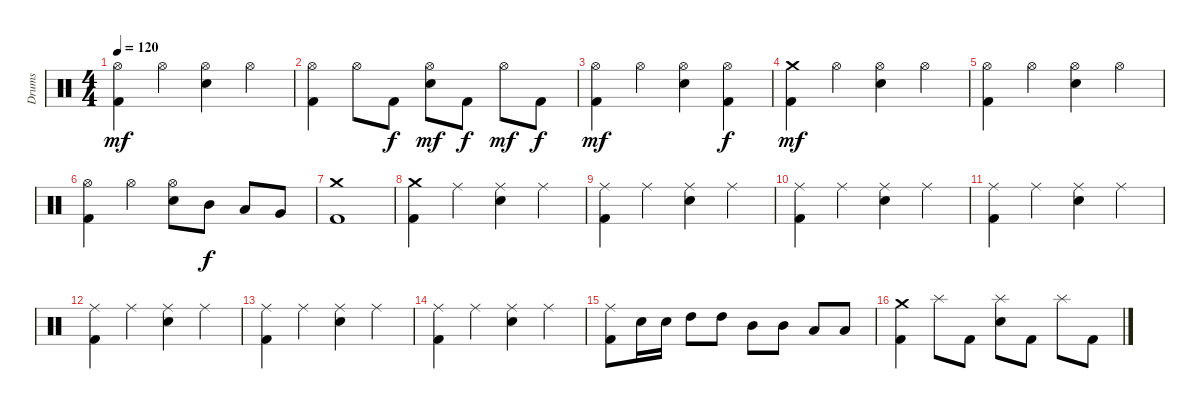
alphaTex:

\track ("Drums" "Drums") {instrument percussion}
\staff {score}
\articulation defaults
\ts (4 4)
\tempo 120
\clef neutral
\ks c
("Kick (hit) 2" "Hi-Hat (open)").4{dy mf} "Hi-Hat (open)".4 ("Electric Snare (hit)" "Hi-Hat (open)").4 "Hi-Hat (open)".4 |
("Kick (hit) 2" "Hi-Hat (open)").4 "Hi-Hat (open)".8 "Kick (hit) 2".8{dy f} ("Electric Snare (hit)" "Hi-Hat (open)").8{dy mf} "Kick (hit) 2".8{dy f} "Hi-Hat (open)".8{dy mf} "Kick (hit) 2".8{dy f} |
("Kick (hit) 2" "Hi-Hat (open)").4{dy mf} "Hi-Hat (open)".4 ("Electric Snare (hit)" "Hi-Hat (open)").4 ("Kick (hit) 2" "Hi-Hat (open)").4{dy f} |
("Kick (hit) 2" "Crash medium (hit)").4{dy mf} "Hi-Hat (open)".4 ("Electric Snare (hit)" "Hi-Hat (open)").4 "Hi-Hat (open)".4 |
("Kick (hit) 2" "Hi-Hat (open)").4 "Hi-Hat (open)".4 ("Electric Snare (hit)" "Hi-Hat (open)").4 "Hi-Hat (open)".4 |
("Kick (hit) 2" "Hi-Hat (open)").4 "Hi-Hat (open)".4 ("Electric Snare (hit)" "Hi-Hat (open)").8 "Mid Tom (hit)".8{dy f} "Low Tom (hit)".8 "Very Low Tom (hit)".8 |
("Kick (hit) 2" "Crash medium (hit)").1 |
("Kick (hit) 2" "Crash medium (hit)").4 "Ride (middle)".4 ("Electric Snare (hit)" "Ride (middle)").4 "Ride (middle)".4 |
("Kick (hit) 2" "Ride (middle)").4 "Ride (middle)".4 ("Electric Snare (hit)" "Ride (middle)").4 "Ride (middle)".4 |
("Kick (hit) 2" "Ride (middle)").4 "Ride (middle)".4 ("Electric Snare (hit)" "Ride (middle)").4 "Ride (middle)".4 |
("Kick (hit) 2" "Ride (middle)").4 "Ride (middle)".4 ("Electric Snare (hit)" "Ride (middle)").4 "Ride (middle)".4 |
("Kick (hit) 2" "Ride (middle)").4 "Ride (middle)".4 ("Electric Snare (hit)" "Ride (middle)").4 "Ride (middle)".4 |
("Kick (hit) 2" "Ride (middle)").4 "Ride (middle)".4 ("Electric Snare (hit)" "Ride (middle)").4 "Ride (middle)".4 |
("Kick (hit) 2" "Ride (middle)").4 "Ride (middle)".4 ("Electric Snare (hit)" "Ride (middle)").4 "Ride (middle)".4 |
("Kick (hit) 2" "Ride (middle)").8 "Electric Snare (hit)".16 "Electric Snare (hit)".16 "High Tom (hit)".8 "High Tom (hit)".8 "Mid Tom (hit)".8 "Mid Tom (hit)".8 "Low Tom (hit)".8 "Low Tom (hit)".8 |
("Kick (hit) 2" "Crash medium (hit)").4 "Splash (hit)".8 "Kick (hit) 2".8 ("Electric Snare (hit)" "Splash (hit)").8 "Kick (hit) 2".8 "Splash (hit)".8 "Kick (hit) 2".8
